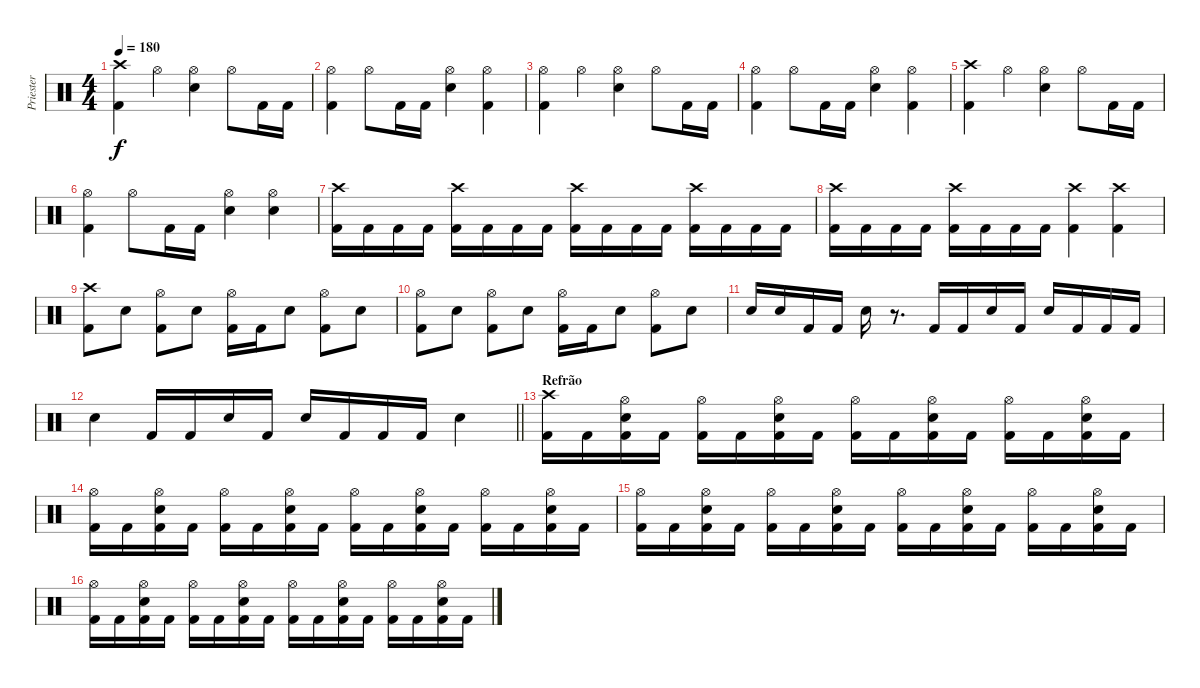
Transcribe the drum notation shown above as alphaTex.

\track ("Priester" "Priester") {instrument percussion}
\staff {score}
\articulation defaults
\ts (4 4)
\section ("" "")
\tempo 180
\clef neutral
\ks c
("Crash high (hit)" "Kick (hit) 2").4{dy f} "Hi-Hat (open)".4 ("Hi-Hat (open)" "Electric Snare (hit)").4 "Hi-Hat (open)".8 "Kick (hit) 2".16 "Kick (hit) 2".16 |
("Hi-Hat (open)" "Kick (hit) 2").4 "Hi-Hat (open)".8 "Kick (hit) 2".16 "Kick (hit) 2".16 ("Hi-Hat (open)" "Electric Snare (hit)").4 ("Hi-Hat (open)" "Kick (hit) 2").4 |
("Hi-Hat (open)" "Kick (hit) 2").4 "Hi-Hat (open)".4 ("Hi-Hat (open)" "Electric Snare (hit)").4 "Hi-Hat (open)".8 "Kick (hit) 2".16 "Kick (hit) 2".16 |
("Hi-Hat (open)" "Kick (hit) 2").4 "Hi-Hat (open)".8 "Kick (hit) 2".16 "Kick (hit) 2".16 ("Hi-Hat (open)" "Electric Snare (hit)").4 ("Hi-Hat (open)" "Kick (hit) 2").4 |
("Crash high (hit)" "Kick (hit) 2").4 "Hi-Hat (open)".4 ("Hi-Hat (open)" "Electric Snare (hit)").4 "Hi-Hat (open)".8 "Kick (hit) 2".16 "Kick (hit) 2".16 |
("Hi-Hat (open)" "Kick (hit) 2").4 "Hi-Hat (open)".8 "Kick (hit) 2".16 "Kick (hit) 2".16 ("Hi-Hat (open)" "Electric Snare (hit)").4 ("Hi-Hat (open)" "Electric Snare (hit)").4 |
("Crash high (hit)" "Kick (hit) 2").16 "Kick (hit) 2".16 "Kick (hit) 2".16 "Kick (hit) 2".16 ("Crash high (hit)" "Kick (hit) 2").16 "Kick (hit) 2".16 "Kick (hit) 2".16 "Kick (hit) 2".16 ("Crash high (hit)" "Kick (hit) 2").16 "Kick (hit) 2".16 "Kick (hit) 2".16 "Kick (hit) 2".16 ("Crash high (hit)" "Kick (hit) 2").16 "Kick (hit) 2".16 "Kick (hit) 2".16 "Kick (hit) 2".16 |
("Crash high (hit)" "Kick (hit) 2").16 "Kick (hit) 2".16 "Kick (hit) 2".16 "Kick (hit) 2".16 ("Crash high (hit)" "Kick (hit) 2").16 "Kick (hit) 2".16 "Kick (hit) 2".16 "Kick (hit) 2".16 ("Crash high (hit)" "Kick (hit) 2").4 ("Crash high (hit)" "Kick (hit) 2").4 |
("Crash high (hit)" "Kick (hit) 2").8 "Electric Snare (hit)".8 ("Hi-Hat (open)" "Kick (hit) 2").8 "Electric Snare (hit)".8 ("Hi-Hat (open)" "Kick (hit) 2").16 "Kick (hit) 2".16 "Electric Snare (hit)".8 ("Hi-Hat (open)" "Kick (hit) 2").8 "Electric Snare (hit)".8 |
("Hi-Hat (open)" "Kick (hit) 2").8 "Electric Snare (hit)".8 ("Hi-Hat (open)" "Kick (hit) 2").8 "Electric Snare (hit)".8 ("Hi-Hat (open)" "Kick (hit) 2").16 "Kick (hit) 2".16 "Electric Snare (hit)".8 ("Hi-Hat (open)" "Kick (hit) 2").8 "Electric Snare (hit)".8 |
"Electric Snare (hit)".16 "Electric Snare (hit)".16 "Kick (hit) 2".16 "Kick (hit) 2".16 "Electric Snare (hit)".16 r.8{d} "Kick (hit) 2".16 "Kick (hit) 2".16 "Electric Snare (hit)".16 "Kick (hit) 2".16 "Electric Snare (hit)".16 "Kick (hit) 2".16 "Kick (hit) 2".16 "Kick (hit) 2".16 |
\barLineRight lightlight "Electric Snare (hit)".4 "Kick (hit) 2".16 "Kick (hit) 2".16 "Electric Snare (hit)".16 "Kick (hit) 2".16 "Electric Snare (hit)".16 "Kick (hit) 2".16 "Kick (hit) 2".16 "Kick (hit) 2".16 "Electric Snare (hit)".4
|
\section ("" "Refrão")
("Crash high (hit)" "Kick (hit) 2").16 "Kick (hit) 2".16 ("Hi-Hat (open)" "Electric Snare (hit)" "Kick (hit) 2").16 "Kick (hit) 2".16 ("Hi-Hat (open)" "Kick (hit) 2").16 "Kick (hit) 2".16 ("Hi-Hat (open)" "Electric Snare (hit)" "Kick (hit) 2").16 "Kick (hit) 2".16 ("Hi-Hat (open)" "Kick (hit) 2").16 "Kick (hit) 2".16 ("Hi-Hat (open)" "Electric Snare (hit)" "Kick (hit) 2").16 "Kick (hit) 2".16 ("Hi-Hat (open)" "Kick (hit) 2").16 "Kick (hit) 2".16 ("Hi-Hat (open)" "Electric Snare (hit)" "Kick (hit) 2").16 "Kick (hit) 2".16 |
("Hi-Hat (open)" "Kick (hit) 2").16 "Kick (hit) 2".16 ("Hi-Hat (open)" "Electric Snare (hit)" "Kick (hit) 2").16 "Kick (hit) 2".16 ("Hi-Hat (open)" "Kick (hit) 2").16 "Kick (hit) 2".16 ("Hi-Hat (open)" "Electric Snare (hit)" "Kick (hit) 2").16 "Kick (hit) 2".16 ("Hi-Hat (open)" "Kick (hit) 2").16 "Kick (hit) 2".16 ("Hi-Hat (open)" "Electric Snare (hit)" "Kick (hit) 2").16 "Kick (hit) 2".16 ("Hi-Hat (open)" "Kick (hit) 2").16 "Kick (hit) 2".16 ("Hi-Hat (open)" "Electric Snare (hit)" "Kick (hit) 2").16 "Kick (hit) 2".16 |
("Hi-Hat (open)" "Kick (hit) 2").16 "Kick (hit) 2".16 ("Hi-Hat (open)" "Electric Snare (hit)" "Kick (hit) 2").16 "Kick (hit) 2".16 ("Hi-Hat (open)" "Kick (hit) 2").16 "Kick (hit) 2".16 ("Hi-Hat (open)" "Electric Snare (hit)" "Kick (hit) 2").16 "Kick (hit) 2".16 ("Hi-Hat (open)" "Kick (hit) 2").16 "Kick (hit) 2".16 ("Hi-Hat (open)" "Electric Snare (hit)" "Kick (hit) 2").16 "Kick (hit) 2".16 ("Hi-Hat (open)" "Kick (hit) 2").16 "Kick (hit) 2".16 ("Hi-Hat (open)" "Electric Snare (hit)" "Kick (hit) 2").16 "Kick (hit) 2".16 |
("Hi-Hat (open)" "Kick (hit) 2").16 "Kick (hit) 2".16 ("Hi-Hat (open)" "Electric Snare (hit)" "Kick (hit) 2").16 "Kick (hit) 2".16 ("Hi-Hat (open)" "Kick (hit) 2").16 "Kick (hit) 2".16 ("Hi-Hat (open)" "Electric Snare (hit)" "Kick (hit) 2").16 "Kick (hit) 2".16 ("Hi-Hat (open)" "Kick (hit) 2").16 "Kick (hit) 2".16 ("Hi-Hat (open)" "Electric Snare (hit)" "Kick (hit) 2").16 "Kick (hit) 2".16 ("Hi-Hat (open)" "Kick (hit) 2").16 "Kick (hit) 2".16 ("Hi-Hat (open)" "Electric Snare (hit)" "Kick (hit) 2").16 "Kick (hit) 2".16
